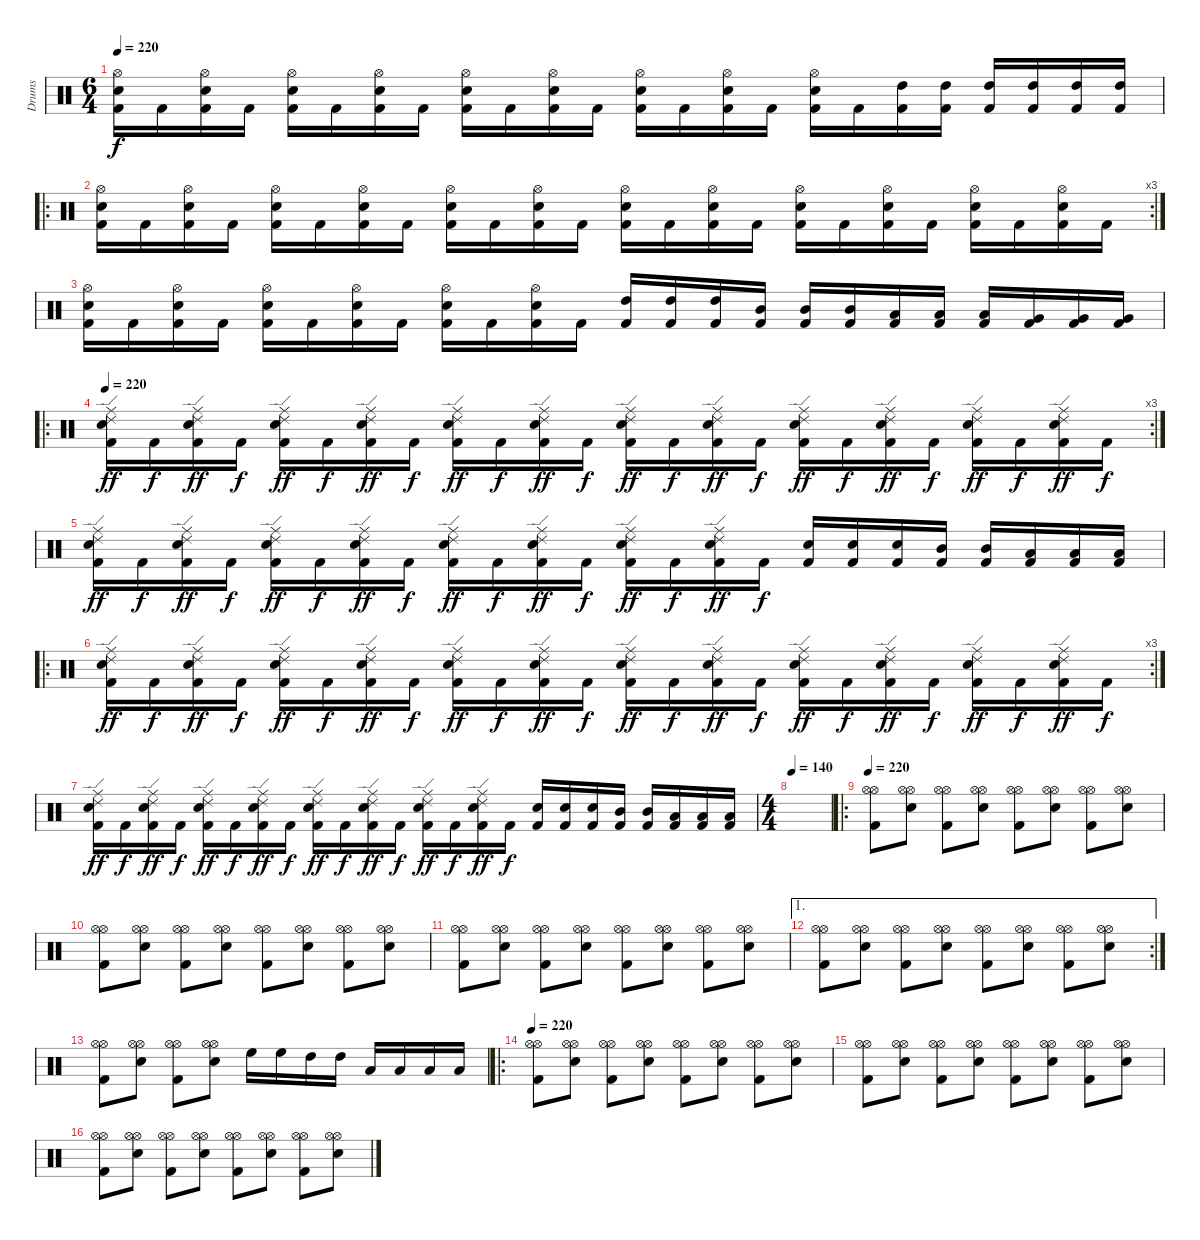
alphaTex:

\track ("Drums" "Drums") {instrument percussion}
\staff {score}
\articulation defaults
\ts (6 4)
\tempo 220
\clef neutral
\ks c
("Hi-Hat (open)" "Snare (hit) 2" "Kick (hit) 2").16{dy f} "Kick (hit) 2".16 ("Hi-Hat (open)" "Snare (hit) 2" "Kick (hit) 2").16 "Kick (hit) 2".16 ("Hi-Hat (open)" "Snare (hit) 2" "Kick (hit) 2").16 "Kick (hit) 2".16 ("Hi-Hat (open)" "Snare (hit) 2" "Kick (hit) 2").16 "Kick (hit) 2".16 ("Hi-Hat (open)" "Snare (hit) 2" "Kick (hit) 2").16 "Kick (hit) 2".16 ("Hi-Hat (open)" "Snare (hit) 2" "Kick (hit) 2").16 "Kick (hit) 2".16 ("Hi-Hat (open)" "Snare (hit) 2" "Kick (hit) 2").16 "Kick (hit) 2".16 ("Hi-Hat (open)" "Snare (hit) 2" "Kick (hit) 2").16 "Kick (hit) 2".16 ("Hi-Hat (open)" "Snare (hit) 2" "Kick (hit) 2").16 "Kick (hit) 2".16 ("High Tom (hit)" "Kick (hit) 2").16 ("High Tom (hit)" "Kick (hit) 2").16 ("High Tom (hit)" "Kick (hit) 2").16 ("High Tom (hit)" "Kick (hit) 2").16 ("High Tom (hit)" "Kick (hit) 2").16 ("High Tom (hit)" "Kick (hit) 2").16 |
\ro
\rc 3
("Hi-Hat (open)" "Snare (hit) 2" "Kick (hit) 2").16 "Kick (hit) 2".16 ("Hi-Hat (open)" "Snare (hit) 2" "Kick (hit) 2").16 "Kick (hit) 2".16 ("Hi-Hat (open)" "Snare (hit) 2" "Kick (hit) 2").16 "Kick (hit) 2".16 ("Hi-Hat (open)" "Snare (hit) 2" "Kick (hit) 2").16 "Kick (hit) 2".16 ("Hi-Hat (open)" "Snare (hit) 2" "Kick (hit) 2").16 "Kick (hit) 2".16 ("Hi-Hat (open)" "Snare (hit) 2" "Kick (hit) 2").16 "Kick (hit) 2".16 ("Hi-Hat (open)" "Snare (hit) 2" "Kick (hit) 2").16 "Kick (hit) 2".16 ("Hi-Hat (open)" "Snare (hit) 2" "Kick (hit) 2").16 "Kick (hit) 2".16 ("Hi-Hat (open)" "Snare (hit) 2" "Kick (hit) 2").16 "Kick (hit) 2".16 ("Hi-Hat (open)" "Snare (hit) 2" "Kick (hit) 2").16 "Kick (hit) 2".16 ("Hi-Hat (open)" "Snare (hit) 2" "Kick (hit) 2").16 "Kick (hit) 2".16 ("Hi-Hat (open)" "Snare (hit) 2" "Kick (hit) 2").16 "Kick (hit) 2".16 |
("Hi-Hat (open)" "Snare (hit) 2" "Kick (hit) 2").16 "Kick (hit) 2".16 ("Hi-Hat (open)" "Snare (hit) 2" "Kick (hit) 2").16 "Kick (hit) 2".16 ("Hi-Hat (open)" "Snare (hit) 2" "Kick (hit) 2").16 "Kick (hit) 2".16 ("Hi-Hat (open)" "Snare (hit) 2" "Kick (hit) 2").16 "Kick (hit) 2".16 ("Hi-Hat (open)" "Snare (hit) 2" "Kick (hit) 2").16 "Kick (hit) 2".16 ("Hi-Hat (open)" "Snare (hit) 2" "Kick (hit) 2").16 "Kick (hit) 2".16 ("High Tom (hit)" "Kick (hit) 2").16 ("High Tom (hit)" "Kick (hit) 2").16 ("High Tom (hit)" "Kick (hit) 2").16 ("Mid Tom (hit)" "Kick (hit) 2").16 ("Mid Tom (hit)" "Kick (hit) 2").16 ("Mid Tom (hit)" "Kick (hit) 2").16 ("Low Tom (hit)" "Kick (hit) 2").16 ("Low Tom (hit)" "Kick (hit) 2").16 ("Low Tom (hit)" "Kick (hit) 2").16 ("Very Low Tom (hit)" "Kick (hit) 2").16 ("Very Low Tom (hit)" "Kick (hit) 2").16 ("Very Low Tom (hit)" "Kick (hit) 2").16 |
\ro
\rc 3
\tempo 220
("Ride (edge) 2" "Ride (middle)" "Snare (hit) 2" "Kick (hit) 2").16{dy ff} "Kick (hit) 2".16{dy f} ("Ride (edge) 2" "Ride (middle)" "Snare (hit) 2" "Kick (hit) 2").16{dy ff} "Kick (hit) 2".16{dy f} ("Ride (edge) 2" "Ride (middle)" "Snare (hit) 2" "Kick (hit) 2").16{dy ff} "Kick (hit) 2".16{dy f} ("Ride (edge) 2" "Ride (middle)" "Snare (hit) 2" "Kick (hit) 2").16{dy ff} "Kick (hit) 2".16{dy f} ("Ride (edge) 2" "Ride (middle)" "Snare (hit) 2" "Kick (hit) 2").16{dy ff} "Kick (hit) 2".16{dy f} ("Ride (edge) 2" "Ride (middle)" "Snare (hit) 2" "Kick (hit) 2").16{dy ff} "Kick (hit) 2".16{dy f} ("Ride (edge) 2" "Ride (middle)" "Snare (hit) 2" "Kick (hit) 2").16{dy ff} "Kick (hit) 2".16{dy f} ("Ride (edge) 2" "Ride (middle)" "Snare (hit) 2" "Kick (hit) 2").16{dy ff} "Kick (hit) 2".16{dy f} ("Ride (edge) 2" "Ride (middle)" "Snare (hit) 2" "Kick (hit) 2").16{dy ff} "Kick (hit) 2".16{dy f} ("Ride (edge) 2" "Ride (middle)" "Snare (hit) 2" "Kick (hit) 2").16{dy ff} "Kick (hit) 2".16{dy f} ("Ride (edge) 2" "Ride (middle)" "Snare (hit) 2" "Kick (hit) 2").16{dy ff} "Kick (hit) 2".16{dy f} ("Ride (edge) 2" "Ride (middle)" "Snare (hit) 2" "Kick (hit) 2").16{dy ff} "Kick (hit) 2".16{dy f} |
("Ride (edge) 2" "Ride (middle)" "Snare (hit) 2" "Kick (hit) 2").16{dy ff} "Kick (hit) 2".16{dy f} ("Ride (edge) 2" "Ride (middle)" "Snare (hit) 2" "Kick (hit) 2").16{dy ff} "Kick (hit) 2".16{dy f} ("Ride (edge) 2" "Ride (middle)" "Snare (hit) 2" "Kick (hit) 2").16{dy ff} "Kick (hit) 2".16{dy f} ("Ride (edge) 2" "Ride (middle)" "Snare (hit) 2" "Kick (hit) 2").16{dy ff} "Kick (hit) 2".16{dy f} ("Ride (edge) 2" "Ride (middle)" "Snare (hit) 2" "Kick (hit) 2").16{dy ff} "Kick (hit) 2".16{dy f} ("Ride (edge) 2" "Ride (middle)" "Snare (hit) 2" "Kick (hit) 2").16{dy ff} "Kick (hit) 2".16{dy f} ("Ride (edge) 2" "Ride (middle)" "Snare (hit) 2" "Kick (hit) 2").16{dy ff} "Kick (hit) 2".16{dy f} ("Ride (edge) 2" "Ride (middle)" "Snare (hit) 2" "Kick (hit) 2").16{dy ff} "Kick (hit) 2".16{dy f} ("Snare (hit) 2" "Kick (hit) 2").16 ("Snare (hit) 2" "Kick (hit) 2").16 ("Snare (hit) 2" "Kick (hit) 2").16 ("Mid Tom (hit)" "Kick (hit) 2").16 ("Mid Tom (hit)" "Kick (hit) 2").16 ("Low Tom (hit)" "Kick (hit) 2").16 ("Low Tom (hit)" "Kick (hit) 2").16 ("Low Tom (hit)" "Kick (hit) 2").16 |
\ro
\rc 3
("Ride (edge) 2" "Ride (middle)" "Snare (hit) 2" "Kick (hit) 2").16{dy ff} "Kick (hit) 2".16{dy f} ("Ride (edge) 2" "Ride (middle)" "Snare (hit) 2" "Kick (hit) 2").16{dy ff} "Kick (hit) 2".16{dy f} ("Ride (edge) 2" "Ride (middle)" "Snare (hit) 2" "Kick (hit) 2").16{dy ff} "Kick (hit) 2".16{dy f} ("Ride (edge) 2" "Ride (middle)" "Snare (hit) 2" "Kick (hit) 2").16{dy ff} "Kick (hit) 2".16{dy f} ("Ride (edge) 2" "Ride (middle)" "Snare (hit) 2" "Kick (hit) 2").16{dy ff} "Kick (hit) 2".16{dy f} ("Ride (edge) 2" "Ride (middle)" "Snare (hit) 2" "Kick (hit) 2").16{dy ff} "Kick (hit) 2".16{dy f} ("Ride (edge) 2" "Ride (middle)" "Snare (hit) 2" "Kick (hit) 2").16{dy ff} "Kick (hit) 2".16{dy f} ("Ride (edge) 2" "Ride (middle)" "Snare (hit) 2" "Kick (hit) 2").16{dy ff} "Kick (hit) 2".16{dy f} ("Ride (edge) 2" "Ride (middle)" "Snare (hit) 2" "Kick (hit) 2").16{dy ff} "Kick (hit) 2".16{dy f} ("Ride (edge) 2" "Ride (middle)" "Snare (hit) 2" "Kick (hit) 2").16{dy ff} "Kick (hit) 2".16{dy f} ("Ride (edge) 2" "Ride (middle)" "Snare (hit) 2" "Kick (hit) 2").16{dy ff} "Kick (hit) 2".16{dy f} ("Ride (edge) 2" "Ride (middle)" "Snare (hit) 2" "Kick (hit) 2").16{dy ff} "Kick (hit) 2".16{dy f} |
("Ride (edge) 2" "Ride (middle)" "Snare (hit) 2" "Kick (hit) 2").16{dy ff} "Kick (hit) 2".16{dy f} ("Ride (edge) 2" "Ride (middle)" "Snare (hit) 2" "Kick (hit) 2").16{dy ff} "Kick (hit) 2".16{dy f} ("Ride (edge) 2" "Ride (middle)" "Snare (hit) 2" "Kick (hit) 2").16{dy ff} "Kick (hit) 2".16{dy f} ("Ride (edge) 2" "Ride (middle)" "Snare (hit) 2" "Kick (hit) 2").16{dy ff} "Kick (hit) 2".16{dy f} ("Ride (edge) 2" "Ride (middle)" "Snare (hit) 2" "Kick (hit) 2").16{dy ff} "Kick (hit) 2".16{dy f} ("Ride (edge) 2" "Ride (middle)" "Snare (hit) 2" "Kick (hit) 2").16{dy ff} "Kick (hit) 2".16{dy f} ("Ride (edge) 2" "Ride (middle)" "Snare (hit) 2" "Kick (hit) 2").16{dy ff} "Kick (hit) 2".16{dy f} ("Ride (edge) 2" "Ride (middle)" "Snare (hit) 2" "Kick (hit) 2").16{dy ff} "Kick (hit) 2".16{dy f} ("Snare (hit) 2" "Kick (hit) 2").16 ("Snare (hit) 2" "Kick (hit) 2").16 ("Snare (hit) 2" "Kick (hit) 2").16 ("Mid Tom (hit)" "Kick (hit) 2").16 ("Mid Tom (hit)" "Kick (hit) 2").16 ("Low Tom (hit)" "Kick (hit) 2").16 ("Low Tom (hit)" "Kick (hit) 2").16 ("Low Tom (hit)" "Kick (hit) 2").16 |
\ts (4 4)
\tempo 140
|
\ro
\tempo 220
("Hi-Hat (open)" "Hi-Hat (open)" "Kick (hit) 2").8 ("Hi-Hat (open)" "Hi-Hat (open)" "Snare (hit) 2").8 ("Hi-Hat (open)" "Hi-Hat (open)" "Kick (hit) 2").8 ("Hi-Hat (open)" "Hi-Hat (open)" "Snare (hit) 2").8 ("Hi-Hat (open)" "Hi-Hat (open)" "Kick (hit) 2").8 ("Hi-Hat (open)" "Hi-Hat (open)" "Snare (hit) 2").8 ("Hi-Hat (open)" "Hi-Hat (open)" "Kick (hit) 2").8 ("Hi-Hat (open)" "Hi-Hat (open)" "Snare (hit) 2").8 |
("Hi-Hat (open)" "Hi-Hat (open)" "Kick (hit) 2").8 ("Hi-Hat (open)" "Hi-Hat (open)" "Snare (hit) 2").8 ("Hi-Hat (open)" "Hi-Hat (open)" "Kick (hit) 2").8 ("Hi-Hat (open)" "Hi-Hat (open)" "Snare (hit) 2").8 ("Hi-Hat (open)" "Hi-Hat (open)" "Kick (hit) 2").8 ("Hi-Hat (open)" "Hi-Hat (open)" "Snare (hit) 2").8 ("Hi-Hat (open)" "Hi-Hat (open)" "Kick (hit) 2").8 ("Hi-Hat (open)" "Hi-Hat (open)" "Snare (hit) 2").8 |
("Hi-Hat (open)" "Hi-Hat (open)" "Kick (hit) 2").8 ("Hi-Hat (open)" "Hi-Hat (open)" "Snare (hit) 2").8 ("Hi-Hat (open)" "Hi-Hat (open)" "Kick (hit) 2").8 ("Hi-Hat (open)" "Hi-Hat (open)" "Snare (hit) 2").8 ("Hi-Hat (open)" "Hi-Hat (open)" "Kick (hit) 2").8 ("Hi-Hat (open)" "Hi-Hat (open)" "Snare (hit) 2").8 ("Hi-Hat (open)" "Hi-Hat (open)" "Kick (hit) 2").8 ("Hi-Hat (open)" "Hi-Hat (open)" "Snare (hit) 2").8 |
\ae 1
\rc 2
("Hi-Hat (open)" "Hi-Hat (open)" "Kick (hit) 2").8 ("Hi-Hat (open)" "Hi-Hat (open)" "Snare (hit) 2").8 ("Hi-Hat (open)" "Hi-Hat (open)" "Kick (hit) 2").8 ("Hi-Hat (open)" "Hi-Hat (open)" "Snare (hit) 2").8 ("Hi-Hat (open)" "Hi-Hat (open)" "Kick (hit) 2").8 ("Hi-Hat (open)" "Hi-Hat (open)" "Snare (hit) 2").8 ("Hi-Hat (open)" "Hi-Hat (open)" "Kick (hit) 2").8 ("Hi-Hat (open)" "Hi-Hat (open)" "Snare (hit) 2").8 |
("Hi-Hat (open)" "Hi-Hat (open)" "Kick (hit) 2").8 ("Hi-Hat (open)" "Hi-Hat (open)" "Snare (hit) 2").8 ("Hi-Hat (open)" "Hi-Hat (open)" "Kick (hit) 2").8 ("Hi-Hat (open)" "Hi-Hat (open)" "Snare (hit) 2").8 "High Floor Tom (hit)".16 "High Floor Tom (hit)".16 "High Tom (hit)".16 "High Tom (hit)".16 "Low Tom (hit)".16 "Low Tom (hit)".16 "Low Floor Tom (hit)".16 "Low Floor Tom (hit)".16 |
\ro
\tempo 220
("Hi-Hat (open)" "Hi-Hat (open)" "Kick (hit) 2").8 ("Hi-Hat (open)" "Hi-Hat (open)" "Snare (hit) 2").8 ("Hi-Hat (open)" "Hi-Hat (open)" "Kick (hit) 2").8 ("Hi-Hat (open)" "Hi-Hat (open)" "Snare (hit) 2").8 ("Hi-Hat (open)" "Hi-Hat (open)" "Kick (hit) 2").8 ("Hi-Hat (open)" "Hi-Hat (open)" "Snare (hit) 2").8 ("Hi-Hat (open)" "Hi-Hat (open)" "Kick (hit) 2").8 ("Hi-Hat (open)" "Hi-Hat (open)" "Snare (hit) 2").8 |
("Hi-Hat (open)" "Hi-Hat (open)" "Kick (hit) 2").8 ("Hi-Hat (open)" "Hi-Hat (open)" "Snare (hit) 2").8 ("Hi-Hat (open)" "Hi-Hat (open)" "Kick (hit) 2").8 ("Hi-Hat (open)" "Hi-Hat (open)" "Snare (hit) 2").8 ("Hi-Hat (open)" "Hi-Hat (open)" "Kick (hit) 2").8 ("Hi-Hat (open)" "Hi-Hat (open)" "Snare (hit) 2").8 ("Hi-Hat (open)" "Hi-Hat (open)" "Kick (hit) 2").8 ("Hi-Hat (open)" "Hi-Hat (open)" "Snare (hit) 2").8 |
("Hi-Hat (open)" "Hi-Hat (open)" "Kick (hit) 2").8 ("Hi-Hat (open)" "Hi-Hat (open)" "Snare (hit) 2").8 ("Hi-Hat (open)" "Hi-Hat (open)" "Kick (hit) 2").8 ("Hi-Hat (open)" "Hi-Hat (open)" "Snare (hit) 2").8 ("Hi-Hat (open)" "Hi-Hat (open)" "Kick (hit) 2").8 ("Hi-Hat (open)" "Hi-Hat (open)" "Snare (hit) 2").8 ("Hi-Hat (open)" "Hi-Hat (open)" "Kick (hit) 2").8 ("Hi-Hat (open)" "Hi-Hat (open)" "Snare (hit) 2").8
